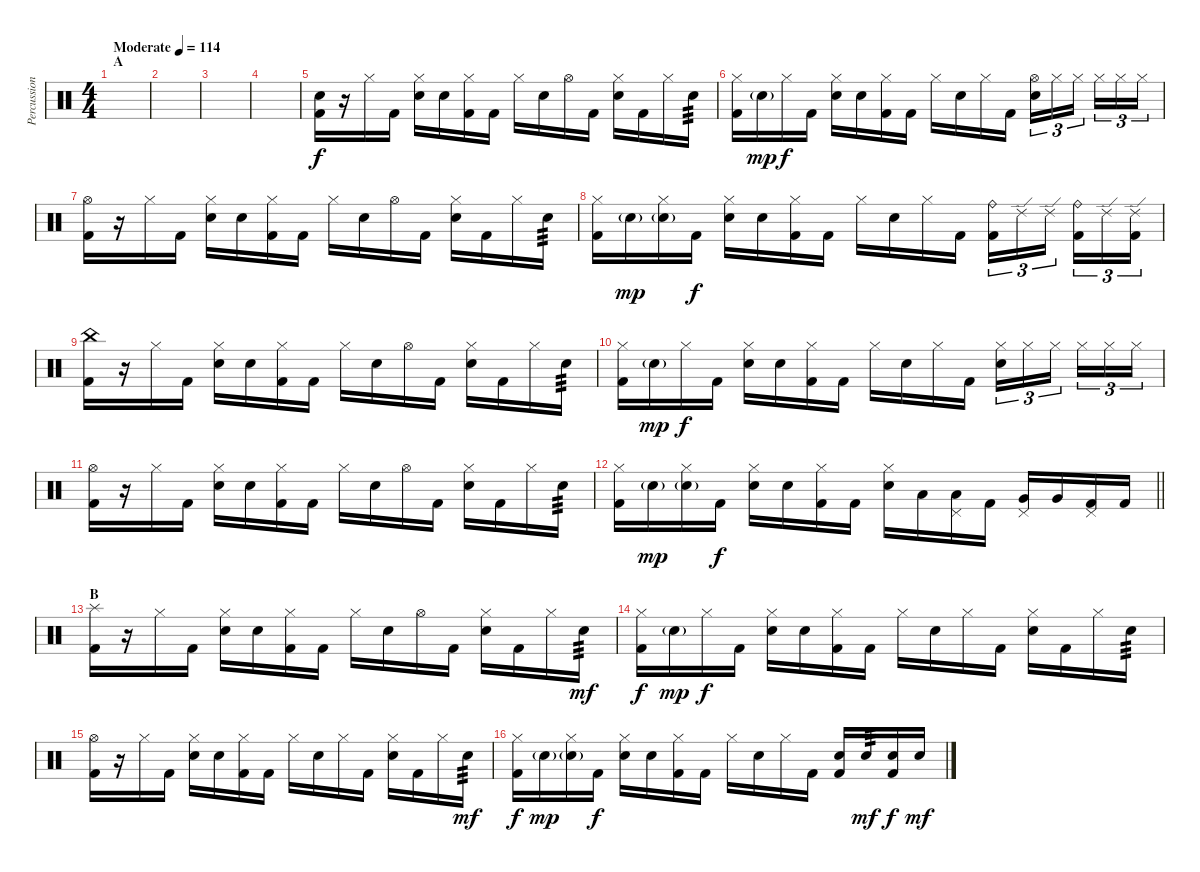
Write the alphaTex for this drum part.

\track ("Percussion" "Percussion") {instrument percussion}
\staff {score}
\articulation defaults
\ts (4 4)
\section ("" "A")
\tempo (114 "Moderate")
\clef neutral
\ks c
|
|
|
|
("Snare (hit)" "Kick (hit) 2").16 r.16 "Hi-Hat (closed)".16 "Kick (hit) 2".16 ("Hi-Hat (closed)" "Snare (hit) 2").16 "Snare (hit) 2".16 ("Hi-Hat (closed)" "Kick (hit) 2").16 "Kick (hit) 2".16 "Hi-Hat (closed)".16 "Snare (hit) 2".16 "Hi-Hat (open)".16 "Kick (hit) 2".16 ("Hi-Hat (closed)" "Snare (hit) 2").16 "Kick (hit) 2".16 "Hi-Hat (closed)".16 "Snare (hit) 2".16{tp 3} |
("Hi-Hat (closed)" "Kick (hit) 2").16 "Snare (hit) 2"{g}.16{dy mp} "Hi-Hat (closed)".16{dy f} "Kick (hit) 2".16 ("Hi-Hat (closed)" "Snare (hit) 2").16 "Snare (hit) 2".16 ("Hi-Hat (closed)" "Kick (hit) 2").16 "Kick (hit) 2".16 "Hi-Hat (closed)".16 "Snare (hit) 2".16 "Hi-Hat (closed)".16 "Kick (hit) 2".16 ("Hi-Hat (open)" "Snare (hit) 2").16{tu (3 2)} "Hi-Hat (closed)".16{tu (3 2)} "Hi-Hat (closed)".16{tu (3 2) beam splitsecondary} "Hi-Hat (closed)".16{tu (3 2)} "Hi-Hat (closed)".16{tu (3 2)} "Hi-Hat (closed)".16{tu (3 2)} |
("Hi-Hat (open)" "Kick (hit) 2").16 r.16 "Hi-Hat (closed)".16 "Kick (hit) 2".16 ("Hi-Hat (closed)" "Snare (hit) 2").16 "Snare (hit) 2".16 ("Hi-Hat (closed)" "Kick (hit) 2").16 "Kick (hit) 2".16 "Hi-Hat (closed)".16 "Snare (hit) 2".16 "Hi-Hat (open)".16 "Kick (hit) 2".16 ("Hi-Hat (closed)" "Snare (hit) 2").16 "Kick (hit) 2".16 "Hi-Hat (closed)".16 "Snare (hit) 2".16{tp 3} |
("Hi-Hat (closed)" "Kick (hit) 2").16 "Snare (hit) 2"{g}.16{dy mp} ("Hi-Hat (closed)" "Snare (hit) 2"{g}).16 "Kick (hit) 2".16{dy f} ("Hi-Hat (closed)" "Snare (hit) 2").16 "Snare (hit) 2".16 ("Hi-Hat (closed)" "Kick (hit) 2").16 "Kick (hit) 2".16 "Hi-Hat (closed)".16 "Snare (hit) 2".16 "Hi-Hat (closed)".16 "Kick (hit) 2".16 ("Ride (bell)" "Kick (hit) 2").16{tu (3 2)} "Ride (edge) 2".16{tu (3 2)} "Ride (edge) 2".16{tu (3 2) beam splitsecondary} ("Ride (bell)" "Kick (hit) 2").16{tu (3 2)} "Ride (edge) 2".16{tu (3 2)} ("Ride (edge) 2" "Kick (hit) 2").16{tu (3 2)} |
("China (hit)" "Kick (hit) 2").16 r.16 "Hi-Hat (closed)".16 "Kick (hit) 2".16 ("Hi-Hat (closed)" "Snare (hit) 2").16 "Snare (hit) 2".16 ("Hi-Hat (closed)" "Kick (hit) 2").16 "Kick (hit) 2".16 "Hi-Hat (closed)".16 "Snare (hit) 2".16 "Hi-Hat (open)".16 "Kick (hit) 2".16 ("Hi-Hat (closed)" "Snare (hit) 2").16 "Kick (hit) 2".16 "Hi-Hat (closed)".16 "Snare (hit) 2".16{tp 3} |
("Hi-Hat (closed)" "Kick (hit) 2").16 "Snare (hit) 2"{g}.16{dy mp} "Hi-Hat (closed)".16{dy f} "Kick (hit) 2".16 ("Hi-Hat (closed)" "Snare (hit) 2").16 "Snare (hit) 2".16 ("Hi-Hat (closed)" "Kick (hit) 2").16 "Kick (hit) 2".16 "Hi-Hat (closed)".16 "Snare (hit) 2".16 "Hi-Hat (closed)".16 "Kick (hit) 2".16 ("Hi-Hat (closed)" "Snare (hit) 2").16{tu (3 2)} "Hi-Hat (closed)".16{tu (3 2)} "Hi-Hat (closed)".16{tu (3 2) beam splitsecondary} "Hi-Hat (closed)".16{tu (3 2)} "Hi-Hat (closed)".16{tu (3 2)} "Hi-Hat (closed)".16{tu (3 2)} |
("Hi-Hat (open)" "Kick (hit) 2").16 r.16 "Hi-Hat (closed)".16 "Kick (hit) 2".16 ("Hi-Hat (closed)" "Snare (hit) 2").16 "Snare (hit) 2".16 ("Hi-Hat (closed)" "Kick (hit) 2").16 "Kick (hit) 2".16 "Hi-Hat (closed)".16 "Snare (hit) 2".16 "Hi-Hat (open)".16 "Kick (hit) 2".16 ("Hi-Hat (closed)" "Snare (hit) 2").16 "Kick (hit) 2".16 "Hi-Hat (closed)".16 "Snare (hit) 2".16{tp 3} |
\barLineRight lightlight
("Hi-Hat (closed)" "Kick (hit) 2").16 "Snare (hit) 2"{g}.16{dy mp} ("Hi-Hat (closed)" "Snare (hit) 2"{g}).16 "Kick (hit) 2".16{dy f} ("Hi-Hat (closed)" "Snare (hit) 2").16 "Snare (hit) 2".16 ("Hi-Hat (closed)" "Kick (hit) 2").16 "Kick (hit) 2".16 ("Hi-Hat (closed)" "Snare (hit) 2").16 "Low Tom (hit)".16 ("Pedal Hi-Hat (hit)" "Low Tom (hit)").16 "Kick (hit) 2".16 ("Pedal Hi-Hat (hit)" "Very Low Tom (hit)").16 "Very Low Tom (hit)".16 ("Pedal Hi-Hat (hit)" "Kick (hit) 2").16 "Kick (hit) 2".16 |
\section ("" "B")
("Splash (hit)" "Kick (hit) 2").16 r.16 "Hi-Hat (closed)".16 "Kick (hit) 2".16 ("Hi-Hat (closed)" "Snare (hit) 2").16 "Snare (hit) 2".16 ("Hi-Hat (closed)" "Kick (hit) 2").16 "Kick (hit) 2".16 "Hi-Hat (closed)".16 "Snare (hit) 2".16 "Hi-Hat (open)".16 "Kick (hit) 2".16 ("Hi-Hat (closed)" "Snare (hit) 2").16 "Kick (hit) 2".16 "Hi-Hat (closed)".16 "Snare (hit) 2".16{tp 3 dy mf} |
("Hi-Hat (closed)" "Kick (hit) 2").16{dy f} "Snare (hit) 2"{g}.16{dy mp} "Hi-Hat (closed)".16{dy f} "Kick (hit) 2".16 ("Hi-Hat (closed)" "Snare (hit) 2").16 "Snare (hit) 2".16 ("Hi-Hat (closed)" "Kick (hit) 2").16 "Kick (hit) 2".16 "Hi-Hat (closed)".16 "Snare (hit) 2".16 "Hi-Hat (closed)".16 "Kick (hit) 2".16 ("Hi-Hat (closed)" "Snare (hit) 2").16 "Kick (hit) 2".16 "Hi-Hat (closed)".16 "Snare (hit) 2".16{tp 3} |
("Hi-Hat (open)" "Kick (hit) 2").16 r.16 "Hi-Hat (closed)".16 "Kick (hit) 2".16 ("Hi-Hat (closed)" "Snare (hit) 2").16 "Snare (hit) 2".16 ("Hi-Hat (closed)" "Kick (hit) 2").16 "Kick (hit) 2".16 "Hi-Hat (closed)".16 "Snare (hit) 2".16 "Hi-Hat (closed)".16 "Kick (hit) 2".16 ("Hi-Hat (closed)" "Snare (hit) 2").16 "Kick (hit) 2".16 "Hi-Hat (closed)".16 "Snare (hit) 2".16{tp 3 dy mf} |
("Hi-Hat (closed)" "Kick (hit) 2").16{dy f} "Snare (hit) 2"{g}.16{dy mp} ("Hi-Hat (closed)" "Snare (hit) 2"{g}).16 "Kick (hit) 2".16{dy f} ("Hi-Hat (closed)" "Snare (hit) 2").16 "Snare (hit) 2".16 ("Hi-Hat (closed)" "Kick (hit) 2").16 "Kick (hit) 2".16 "Hi-Hat (closed)".16 "Snare (hit) 2".16 "Hi-Hat (closed)".16 "Kick (hit) 2".16 ("Snare (hit)" "Kick (hit) 2").16 "Snare (hit) 2".16{tp 3 dy mf} ("Snare (hit)" "Kick (hit) 2").16{dy f} "Snare (hit) 2".16{dy mf}
